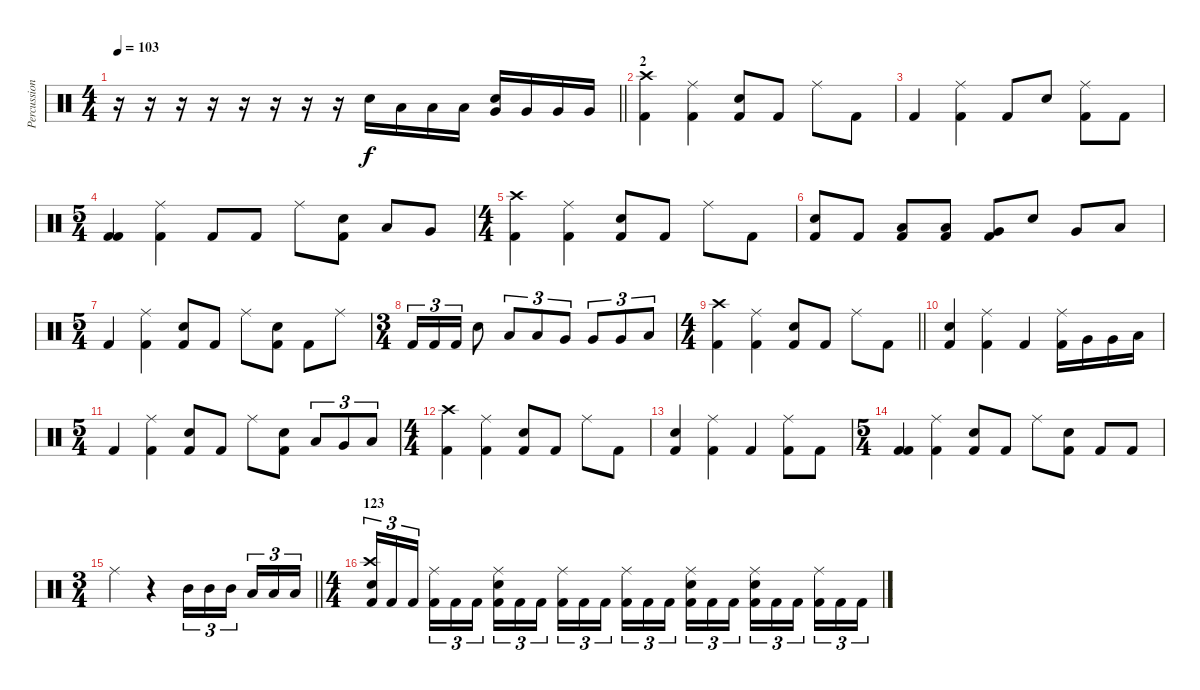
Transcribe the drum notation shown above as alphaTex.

\track ("Percussion" "Percussion") {instrument percussion}
\staff {score}
\articulation defaults
\ts (4 4)
\tempo 103
\clef neutral
\barLineRight lightlight
\ks c
r.16{dy f} r.16 r.16 r.16 r.16 r.16 r.16 r.16 "Electric Snare (hit)".16 "Low Tom (hit)".16 "Low Tom (hit)".16 "Low Tom (hit)".16 ("Very Low Tom (hit)" "Electric Snare (hit)").16 "Very Low Tom (hit)".16 "Very Low Tom (hit)".16 "Very Low Tom (hit)".16 |
\section ("" "2")
("Crash high (hit)" "Kick (hit) 2").4 ("Ride (middle)" "Kick (hit) 2").4 ("Electric Snare (hit)" "Kick (hit) 2").8 "Kick (hit) 2".8 "Ride (middle)".8 "Kick (hit) 2".8 |
"Kick (hit) 2".4 ("Ride (middle)" "Kick (hit) 2").4 "Kick (hit) 2".8 "Electric Snare (hit)".8 ("Ride (middle)" "Kick (hit) 2").8 "Kick (hit) 2".8 |
\ts (5 4)
("Kick (hit) 2" "Kick (hit) 2").4 ("Ride (middle)" "Kick (hit) 2").4 "Kick (hit) 2".8 "Kick (hit) 2".8 "Ride (middle)".8 ("Electric Snare (hit)" "Kick (hit) 2").8 "Low Tom (hit)".8 "Very Low Tom (hit)".8 |
\ts (4 4)
("Crash high (hit)" "Kick (hit) 2").4 ("Ride (middle)" "Kick (hit) 2").4 ("Electric Snare (hit)" "Kick (hit) 2").8 "Kick (hit) 2".8 "Ride (middle)".8 "Kick (hit) 2".8 |
("Electric Snare (hit)" "Kick (hit) 2").8 "Kick (hit) 2".8 ("Low Tom (hit)" "Kick (hit) 2").8 ("Low Tom (hit)" "Kick (hit) 2").8 ("Very Low Tom (hit)" "Kick (hit) 2").8 "Electric Snare (hit)".8 "Very Low Tom (hit)".8 "Low Floor Tom (hit)".8 |
\ts (5 4)
"Kick (hit) 2".4 ("Ride (middle)" "Kick (hit) 2").4 ("Electric Snare (hit)" "Kick (hit) 2").8 "Kick (hit) 2".8 "Ride (middle)".8 ("Electric Snare (hit)" "Kick (hit) 2").8 "Kick (hit) 2".8 "Ride (middle)".8 |
\ts (3 4)
"Kick (hit) 2".16{tu (3 2)} "Kick (hit) 2".16{tu (3 2)} "Kick (hit) 2".16{tu (3 2)} "Electric Snare (hit)".8 "Low Tom (hit)".8{tu (3 2)} "Low Tom (hit)".8{tu (3 2)} "Very Low Tom (hit)".8{tu (3 2)} "Very Low Tom (hit)".8{tu (3 2)} "Very Low Tom (hit)".8{tu (3 2)} "Low Floor Tom (hit)".8{tu (3 2)} |
\ts (4 4)
\barLineRight lightlight
("Crash high (hit)" "Kick (hit) 2").4 ("Ride (middle)" "Kick (hit) 2").4 ("Electric Snare (hit)" "Kick (hit) 2").8 "Kick (hit) 2".8 "Ride (middle)".8 "Kick (hit) 2".8 |
\section ("" "")
("Electric Snare (hit)" "Kick (hit) 2").4 ("Ride (middle)" "Kick (hit) 2").4 "Kick (hit) 2".4 ("Ride (middle)" "Kick (hit) 2").16 "Very Low Tom (hit)".16 "Very Low Tom (hit)".16 "Low Floor Tom (hit)".16 |
\ts (5 4)
"Kick (hit) 2".4 ("Ride (middle)" "Kick (hit) 2").4 ("Electric Snare (hit)" "Kick (hit) 2").8 "Kick (hit) 2".8 "Ride (middle)".8 ("Electric Snare (hit)" "Kick (hit) 2").8 "Low Tom (hit)".8{tu (3 2)} "Very Low Tom (hit)".8{tu (3 2)} "Low Floor Tom (hit)".8{tu (3 2)} |
\ts (4 4)
("Crash high (hit)" "Kick (hit) 2").4 ("Ride (middle)" "Kick (hit) 2").4 ("Electric Snare (hit)" "Kick (hit) 2").8 "Kick (hit) 2".8 "Ride (middle)".8 "Kick (hit) 2".8 |
("Electric Snare (hit)" "Kick (hit) 2").4 ("Ride (middle)" "Kick (hit) 2").4 "Kick (hit) 2".4 ("Ride (middle)" "Kick (hit) 2").8 "Kick (hit) 2".8 |
\ts (5 4)
("Kick (hit) 2" "Kick (hit) 2").4 ("Ride (middle)" "Kick (hit) 2").4 ("Electric Snare (hit)" "Kick (hit) 2").8 "Kick (hit) 2".8 "Ride (middle)".8 ("Electric Snare (hit)" "Kick (hit) 2").8 "Kick (hit) 2".8 "Kick (hit) 2".8 |
\ts (3 4)
\barLineRight lightlight "Ride (middle)".4
r.4 "Mid Tom (hit)".16{tu (3 2)} "Mid Tom (hit)".16{tu (3 2)} "Mid Tom (hit)".16{tu (3 2)} "Low Tom (hit)".16{tu (3 2)} "Low Tom (hit)".16{tu (3 2)} "Low Tom (hit)".16{tu (3 2)} |
\ts (4 4)
\section ("" "123")
("Crash high (hit)" "Electric Snare (hit)" "Kick (hit) 2").16{tu (3 2)} "Kick (hit) 2".16{tu (3 2)} "Kick (hit) 2".16{tu (3 2)} ("Ride (middle)" "Kick (hit) 2").16{tu (3 2)} "Kick (hit) 2".16{tu (3 2)} "Kick (hit) 2".16{tu (3 2)} ("Ride (middle)" "Electric Snare (hit)" "Kick (hit) 2").16{tu (3 2)} "Kick (hit) 2".16{tu (3 2)} "Kick (hit) 2".16{tu (3 2)} ("Ride (middle)" "Kick (hit) 2").16{tu (3 2)} "Kick (hit) 2".16{tu (3 2)} "Kick (hit) 2".16{tu (3 2)} ("Ride (middle)" "Kick (hit) 2").16{tu (3 2)} "Kick (hit) 2".16{tu (3 2)} "Kick (hit) 2".16{tu (3 2)} ("Ride (middle)" "Electric Snare (hit)" "Kick (hit) 2").16{tu (3 2)} "Kick (hit) 2".16{tu (3 2)} "Kick (hit) 2".16{tu (3 2)} ("Ride (middle)" "Electric Snare (hit)" "Kick (hit) 2").16{tu (3 2)} "Kick (hit) 2".16{tu (3 2)} "Kick (hit) 2".16{tu (3 2)} ("Ride (middle)" "Kick (hit) 2").16{tu (3 2)} "Kick (hit) 2".16{tu (3 2)} "Kick (hit) 2".16{tu (3 2)}
